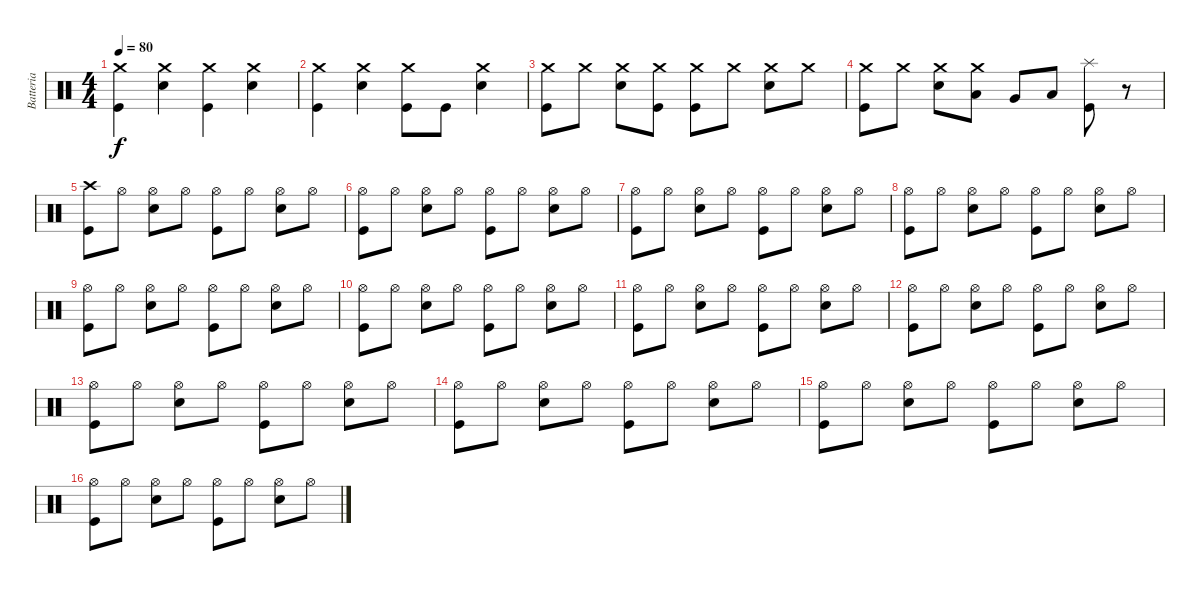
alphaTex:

\track ("Batteria" "Batteria") {instrument percussion}
\staff {score}
\articulation defaults
\ts (4 4)
\tempo 80
\clef neutral
\ks c
("Crash medium (hit)" "Kick (hit)").4{dy f} ("Crash medium (hit)" "Electric Snare (hit)").4 ("Kick (hit)" "Crash medium (hit)").4 ("Crash medium (hit)" "Electric Snare (hit)").4 |
("Crash medium (hit)" "Kick (hit)").4 ("Crash medium (hit)" "Electric Snare (hit)").4 ("Crash medium (hit)" "Kick (hit)").8 "Kick (hit)".8 ("Crash medium (hit)" "Electric Snare (hit)").4 |
("Crash medium (hit)" "Kick (hit)").8 "Crash medium (hit)".8 ("Crash medium (hit)" "Electric Snare (hit)").8 ("Kick (hit)" "Crash medium (hit)").8 ("Crash medium (hit)" "Kick (hit)").8 "Crash medium (hit)".8 ("Crash medium (hit)" "Electric Snare (hit)").8 "Crash medium (hit)".8 |
("Crash medium (hit)" "Kick (hit)").8 "Crash medium (hit)".8 ("Crash medium (hit)" "Electric Snare (hit)").8 ("Crash medium (hit)" "Low Tom (hit)").8 "Very Low Tom (hit)".8 "Low Floor Tom (hit)".8 ("Kick (hit)" "Splash (hit)").8 r.8 |
("Kick (hit)" "Crash high (hit)").8 "Hi-Hat (open)".8 ("Hi-Hat (open)" "Electric Snare (hit)").8 "Hi-Hat (open)".8 ("Hi-Hat (open)" "Kick (hit)").8 "Hi-Hat (open)".8 ("Hi-Hat (open)" "Electric Snare (hit)").8 "Hi-Hat (open)".8 |
("Hi-Hat (open)" "Kick (hit)").8 "Hi-Hat (open)".8 ("Hi-Hat (open)" "Electric Snare (hit)").8 "Hi-Hat (open)".8 ("Hi-Hat (open)" "Kick (hit)").8 "Hi-Hat (open)".8 ("Hi-Hat (open)" "Electric Snare (hit)").8 "Hi-Hat (open)".8 |
("Hi-Hat (open)" "Kick (hit)").8 "Hi-Hat (open)".8 ("Hi-Hat (open)" "Electric Snare (hit)").8 "Hi-Hat (open)".8 ("Hi-Hat (open)" "Kick (hit)").8 "Hi-Hat (open)".8 ("Hi-Hat (open)" "Electric Snare (hit)").8 "Hi-Hat (open)".8 |
("Kick (hit)" "Hi-Hat (open)").8 "Hi-Hat (open)".8 ("Electric Snare (hit)" "Hi-Hat (open)").8 "Hi-Hat (open)".8 ("Kick (hit)" "Hi-Hat (open)").8 "Hi-Hat (open)".8 ("Electric Snare (hit)" "Hi-Hat (open)").8 "Hi-Hat (open)".8 |
("Hi-Hat (open)" "Kick (hit)").8 "Hi-Hat (open)".8 ("Hi-Hat (open)" "Electric Snare (hit)").8 "Hi-Hat (open)".8 ("Hi-Hat (open)" "Kick (hit)").8 "Hi-Hat (open)".8 ("Hi-Hat (open)" "Electric Snare (hit)").8 "Hi-Hat (open)".8 |
("Kick (hit)" "Hi-Hat (open)").8 "Hi-Hat (open)".8 ("Electric Snare (hit)" "Hi-Hat (open)").8 "Hi-Hat (open)".8 ("Kick (hit)" "Hi-Hat (open)").8 "Hi-Hat (open)".8 ("Electric Snare (hit)" "Hi-Hat (open)").8 "Hi-Hat (open)".8 |
("Hi-Hat (open)" "Kick (hit)").8 "Hi-Hat (open)".8 ("Hi-Hat (open)" "Electric Snare (hit)").8 "Hi-Hat (open)".8 ("Hi-Hat (open)" "Kick (hit)").8 "Hi-Hat (open)".8 ("Hi-Hat (open)" "Electric Snare (hit)").8 "Hi-Hat (open)".8 |
("Kick (hit)" "Hi-Hat (open)").8 "Hi-Hat (open)".8 ("Electric Snare (hit)" "Hi-Hat (open)").8 "Hi-Hat (open)".8 ("Kick (hit)" "Hi-Hat (open)").8 "Hi-Hat (open)".8 ("Electric Snare (hit)" "Hi-Hat (open)").8 "Hi-Hat (open)".8 |
("Hi-Hat (open)" "Kick (hit)").8 "Hi-Hat (open)".8 ("Hi-Hat (open)" "Electric Snare (hit)").8 "Hi-Hat (open)".8 ("Hi-Hat (open)" "Kick (hit)").8 "Hi-Hat (open)".8 ("Hi-Hat (open)" "Electric Snare (hit)").8 "Hi-Hat (open)".8 |
("Kick (hit)" "Hi-Hat (open)").8 "Hi-Hat (open)".8 ("Electric Snare (hit)" "Hi-Hat (open)").8 "Hi-Hat (open)".8 ("Kick (hit)" "Hi-Hat (open)").8 "Hi-Hat (open)".8 ("Electric Snare (hit)" "Hi-Hat (open)").8 "Hi-Hat (open)".8 |
("Kick (hit)" "Hi-Hat (open)").8 "Hi-Hat (open)".8 ("Hi-Hat (open)" "Electric Snare (hit)").8 "Hi-Hat (open)".8 ("Kick (hit)" "Hi-Hat (open)").8 "Hi-Hat (open)".8 ("Electric Snare (hit)" "Hi-Hat (open)").8 "Hi-Hat (open)".8 |
("Kick (hit)" "Hi-Hat (open)").8 "Hi-Hat (open)".8 ("Hi-Hat (open)" "Electric Snare (hit)").8 "Hi-Hat (open)".8 ("Hi-Hat (open)" "Kick (hit)").8 "Hi-Hat (open)".8 ("Hi-Hat (open)" "Electric Snare (hit)").8 "Hi-Hat (open)".8
